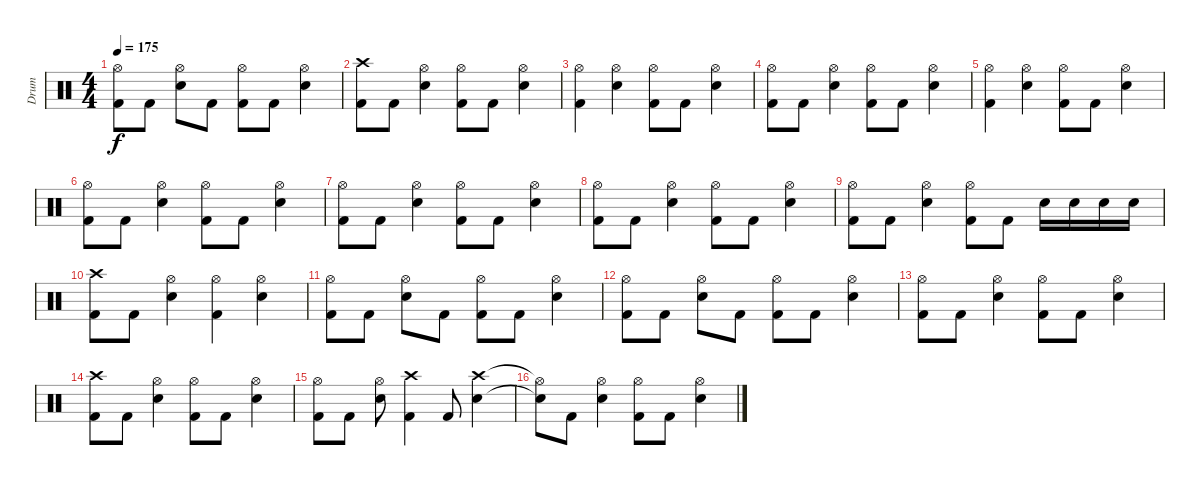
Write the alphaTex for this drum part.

\track ("Drum" "Drum") {instrument percussion}
\staff {score}
\articulation defaults
\ts (4 4)
\tempo 175
\clef neutral
\ks c
("Hi-Hat (open)" "Kick (hit) 2").8{dy f} "Kick (hit) 2".8 ("Hi-Hat (open)" "Electric Snare (hit)").8 "Kick (hit) 2".8 ("Hi-Hat (open)" "Kick (hit) 2").8 "Kick (hit) 2".8 ("Hi-Hat (open)" "Electric Snare (hit)").4 |
("Crash high (hit)" "Kick (hit) 2").8 "Kick (hit) 2".8 ("Hi-Hat (open)" "Electric Snare (hit)").4 ("Hi-Hat (open)" "Kick (hit) 2").8 "Kick (hit) 2".8 ("Hi-Hat (open)" "Electric Snare (hit)").4 |
("Hi-Hat (open)" "Kick (hit) 2").4 ("Hi-Hat (open)" "Electric Snare (hit)").4 ("Hi-Hat (open)" "Kick (hit) 2").8 "Kick (hit) 2".8 ("Hi-Hat (open)" "Electric Snare (hit)").4 |
("Hi-Hat (open)" "Kick (hit) 2").8 "Kick (hit) 2".8 ("Hi-Hat (open)" "Electric Snare (hit)").4 ("Hi-Hat (open)" "Kick (hit) 2").8 "Kick (hit) 2".8 ("Hi-Hat (open)" "Electric Snare (hit)").4 |
("Hi-Hat (open)" "Kick (hit) 2").4 ("Hi-Hat (open)" "Electric Snare (hit)").4 ("Hi-Hat (open)" "Kick (hit) 2").8 "Kick (hit) 2".8 ("Hi-Hat (open)" "Electric Snare (hit)").4 |
("Hi-Hat (open)" "Kick (hit) 2").8 "Kick (hit) 2".8 ("Hi-Hat (open)" "Electric Snare (hit)").4 ("Hi-Hat (open)" "Kick (hit) 2").8 "Kick (hit) 2".8 ("Hi-Hat (open)" "Electric Snare (hit)").4 |
("Hi-Hat (open)" "Kick (hit) 2").8 "Kick (hit) 2".8 ("Hi-Hat (open)" "Electric Snare (hit)").4 ("Hi-Hat (open)" "Kick (hit) 2").8 "Kick (hit) 2".8 ("Hi-Hat (open)" "Electric Snare (hit)").4 |
("Hi-Hat (open)" "Kick (hit) 2").8 "Kick (hit) 2".8 ("Hi-Hat (open)" "Electric Snare (hit)").4 ("Hi-Hat (open)" "Kick (hit) 2").8 "Kick (hit) 2".8 ("Hi-Hat (open)" "Electric Snare (hit)").4 |
("Hi-Hat (open)" "Kick (hit) 2").8 "Kick (hit) 2".8 ("Hi-Hat (open)" "Electric Snare (hit)").4 ("Hi-Hat (open)" "Kick (hit) 2").8 "Kick (hit) 2".8 "Electric Snare (hit)".16 "Electric Snare (hit)".16 "Electric Snare (hit)".16 "Electric Snare (hit)".16 |
("Crash high (hit)" "Kick (hit) 2").8 "Kick (hit) 2".8 ("Hi-Hat (open)" "Electric Snare (hit)").4 ("Hi-Hat (open)" "Kick (hit) 2").4 ("Hi-Hat (open)" "Electric Snare (hit)").4 |
("Hi-Hat (open)" "Kick (hit) 2").8 "Kick (hit) 2".8 ("Hi-Hat (open)" "Electric Snare (hit)").8 "Kick (hit) 2".8 ("Hi-Hat (open)" "Kick (hit) 2").8 "Kick (hit) 2".8 ("Hi-Hat (open)" "Electric Snare (hit)").4 |
("Hi-Hat (open)" "Kick (hit) 2").8 "Kick (hit) 2".8 ("Hi-Hat (open)" "Electric Snare (hit)").8 "Kick (hit) 2".8 ("Hi-Hat (open)" "Kick (hit) 2").8 "Kick (hit) 2".8 ("Hi-Hat (open)" "Electric Snare (hit)").4 |
("Hi-Hat (open)" "Kick (hit) 2").8 "Kick (hit) 2".8 ("Hi-Hat (open)" "Electric Snare (hit)").4 ("Hi-Hat (open)" "Kick (hit) 2").8 "Kick (hit) 2".8 ("Hi-Hat (open)" "Electric Snare (hit)").4 |
("Crash high (hit)" "Kick (hit) 2").8 "Kick (hit) 2".8 ("Hi-Hat (open)" "Electric Snare (hit)").4 ("Hi-Hat (open)" "Kick (hit) 2").8 "Kick (hit) 2".8 ("Hi-Hat (open)" "Electric Snare (hit)").4 |
("Hi-Hat (open)" "Kick (hit) 2").8 "Kick (hit) 2".8 ("Hi-Hat (open)" "Electric Snare (hit)").8 ("Crash high (hit)" "Kick (hit) 2").4 "Kick (hit) 2".8 ("Crash high (hit)" "Electric Snare (hit)").4 |
("Hi-Hat (open)"{t} "Snare (hit)"{t}).8 "Kick (hit) 2".8 ("Hi-Hat (open)" "Electric Snare (hit)").4 ("Hi-Hat (open)" "Kick (hit) 2").8 "Kick (hit) 2".8 ("Hi-Hat (open)" "Electric Snare (hit)").4
